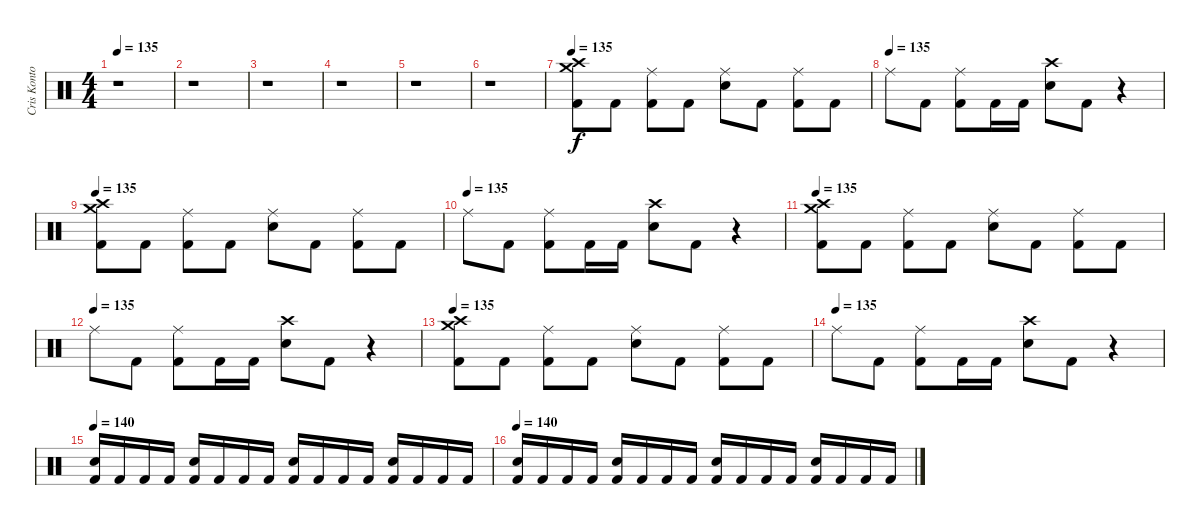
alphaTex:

\track ("Cris Kontos" "Cris Konto") {instrument percussion}
\staff {score}
\articulation defaults
\ts (4 4)
\tempo 135
\clef neutral
\ks c
r.1{dy f} |
r.1 |
r.1 |
r.1 |
r.1 |
r.1 |
\tempo 135
("Crash high (hit)" "Crash medium (hit)" "Kick (hit) 2").8 "Kick (hit) 2".8 ("Ride (middle)" "Kick (hit) 2").8 "Kick (hit) 2".8 ("Ride (middle)" "Electric Snare (hit)").8 "Kick (hit) 2".8 ("Ride (middle)" "Kick (hit) 2").8 "Kick (hit) 2".8 |
\tempo (135)
"Ride (middle)".8 "Kick (hit) 2".8 ("Ride (middle)" "Kick (hit) 2").8 "Kick (hit) 2".16 "Kick (hit) 2".16 ("Crash high (hit)" "Electric Snare (hit)").8 "Kick (hit) 2".8 r.4 |
\tempo 135
("Crash high (hit)" "Crash medium (hit)" "Kick (hit) 2").8 "Kick (hit) 2".8 ("Ride (middle)" "Kick (hit) 2").8 "Kick (hit) 2".8 ("Ride (middle)" "Electric Snare (hit)").8 "Kick (hit) 2".8 ("Ride (middle)" "Kick (hit) 2").8 "Kick (hit) 2".8 |
\tempo (135)
"Ride (middle)".8 "Kick (hit) 2".8 ("Ride (middle)" "Kick (hit) 2").8 "Kick (hit) 2".16 "Kick (hit) 2".16 ("Crash high (hit)" "Electric Snare (hit)").8 "Kick (hit) 2".8 r.4 |
\tempo 135
("Crash high (hit)" "Crash medium (hit)" "Kick (hit) 2").8 "Kick (hit) 2".8 ("Ride (middle)" "Kick (hit) 2").8 "Kick (hit) 2".8 ("Ride (middle)" "Electric Snare (hit)").8 "Kick (hit) 2".8 ("Ride (middle)" "Kick (hit) 2").8 "Kick (hit) 2".8 |
\tempo (135)
"Ride (middle)".8 "Kick (hit) 2".8 ("Ride (middle)" "Kick (hit) 2").8 "Kick (hit) 2".16 "Kick (hit) 2".16 ("Crash high (hit)" "Electric Snare (hit)").8 "Kick (hit) 2".8 r.4 |
\tempo 128
\tempo 135
("Crash high (hit)" "Crash medium (hit)" "Kick (hit) 2").8 "Kick (hit) 2".8 ("Ride (middle)" "Kick (hit) 2").8 "Kick (hit) 2".8 ("Ride (middle)" "Electric Snare (hit)").8 "Kick (hit) 2".8 ("Ride (middle)" "Kick (hit) 2").8 "Kick (hit) 2".8 |
\tempo (135)
"Ride (middle)".8 "Kick (hit) 2".8 ("Ride (middle)" "Kick (hit) 2").8 "Kick (hit) 2".16 "Kick (hit) 2".16 ("Crash high (hit)" "Electric Snare (hit)").8 "Kick (hit) 2".8 r.4 |
\tempo 140
("Electric Snare (hit)" "Kick (hit) 2").16 "Kick (hit) 2".16 "Kick (hit) 2".16 "Kick (hit) 2".16 ("Electric Snare (hit)" "Kick (hit) 2").16 "Kick (hit) 2".16 "Kick (hit) 2".16 "Kick (hit) 2".16 ("Electric Snare (hit)" "Kick (hit) 2").16 "Kick (hit) 2".16 "Kick (hit) 2".16 "Kick (hit) 2".16 ("Electric Snare (hit)" "Kick (hit) 2").16 "Kick (hit) 2".16 "Kick (hit) 2".16 "Kick (hit) 2".16 |
\tempo 140
("Electric Snare (hit)" "Kick (hit) 2").16 "Kick (hit) 2".16 "Kick (hit) 2".16 "Kick (hit) 2".16 ("Electric Snare (hit)" "Kick (hit) 2").16 "Kick (hit) 2".16 "Kick (hit) 2".16 "Kick (hit) 2".16 ("Electric Snare (hit)" "Kick (hit) 2").16 "Kick (hit) 2".16 "Kick (hit) 2".16 "Kick (hit) 2".16 ("Electric Snare (hit)" "Kick (hit) 2").16 "Kick (hit) 2".16 "Kick (hit) 2".16 "Kick (hit) 2".16
